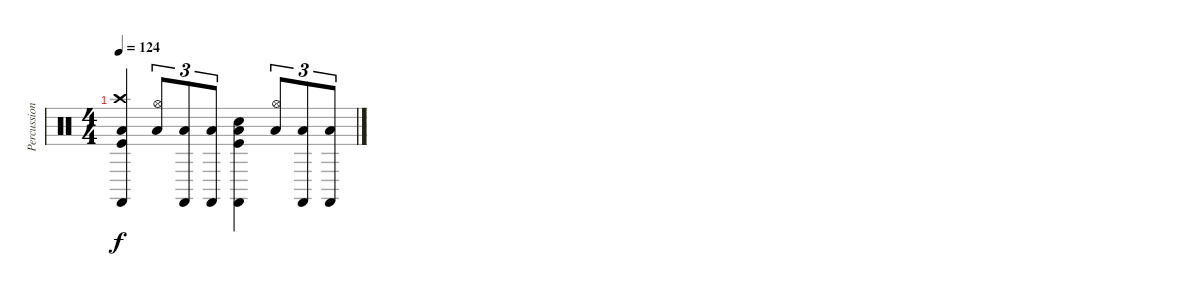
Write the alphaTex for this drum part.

\track ("Percussion" "Percussion") {instrument percussion}
\staff {score}
\articulation defaults
\ts (4 4)
\tempo 124
\clef neutral
\ks c
("Low Floor Tom (hit)" "Kick (hit)" "Crash high (hit)" "Castanets (hit)").4{dy f} ("Low Floor Tom (hit)" "Hi-Hat (open)").8{tu (3 2)} ("Low Floor Tom (hit)" "Castanets (hit)").8{tu (3 2)} ("Low Floor Tom (hit)" "Castanets (hit)").8{tu (3 2)} ("Low Floor Tom (hit)" "Electric Snare (hit)" "Kick (hit)" "Castanets (hit)").4 ("Low Floor Tom (hit)" "Hi-Hat (open)").8{tu (3 2)} ("Low Floor Tom (hit)" "Castanets (hit)").8{tu (3 2)} ("Low Floor Tom (hit)" "Castanets (hit)").8{tu (3 2)}
